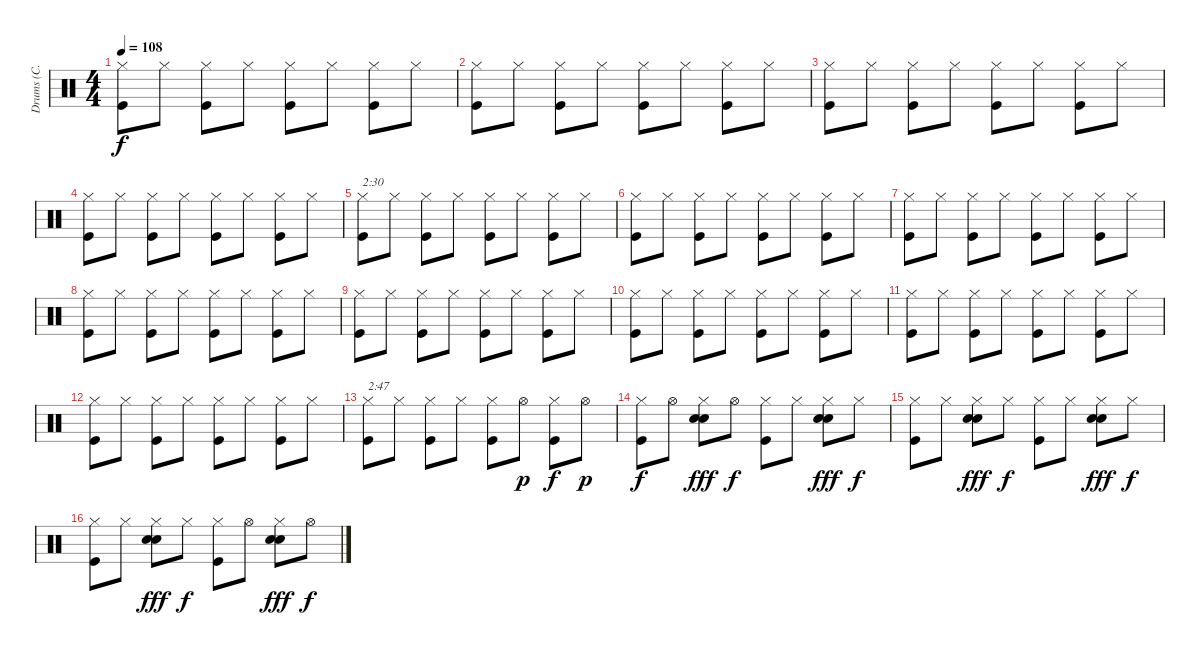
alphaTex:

\track ("Drums (C. Watts)" "Drums (C. ") {instrument percussion}
\staff {score}
\articulation defaults
\ts (4 4)
\tempo 108
\clef neutral
\ks c
("Hi-Hat (closed)" "Kick (hit)").8{dy f} "Hi-Hat (closed)".8 ("Hi-Hat (closed)" "Kick (hit)").8 "Hi-Hat (closed)".8 ("Hi-Hat (closed)" "Kick (hit)").8 "Hi-Hat (closed)".8 ("Hi-Hat (closed)" "Kick (hit)").8 "Hi-Hat (closed)".8 |
("Hi-Hat (closed)" "Kick (hit)").8 "Hi-Hat (closed)".8 ("Hi-Hat (closed)" "Kick (hit)").8 "Hi-Hat (closed)".8 ("Hi-Hat (closed)" "Kick (hit)").8 "Hi-Hat (closed)".8 ("Hi-Hat (closed)" "Kick (hit)").8 "Hi-Hat (closed)".8 |
("Hi-Hat (closed)" "Kick (hit)").8 "Hi-Hat (closed)".8 ("Hi-Hat (closed)" "Kick (hit)").8 "Hi-Hat (closed)".8 ("Hi-Hat (closed)" "Kick (hit)").8 "Hi-Hat (closed)".8 ("Hi-Hat (closed)" "Kick (hit)").8 "Hi-Hat (closed)".8 |
("Hi-Hat (closed)" "Kick (hit)").8 "Hi-Hat (closed)".8 ("Hi-Hat (closed)" "Kick (hit)").8 "Hi-Hat (closed)".8 ("Hi-Hat (closed)" "Kick (hit)").8 "Hi-Hat (closed)".8 ("Hi-Hat (closed)" "Kick (hit)").8 "Hi-Hat (closed)".8 |
("Hi-Hat (closed)" "Kick (hit)").8{txt "2:30"} "Hi-Hat (closed)".8 ("Hi-Hat (closed)" "Kick (hit)").8 "Hi-Hat (closed)".8 ("Hi-Hat (closed)" "Kick (hit)").8 "Hi-Hat (closed)".8 ("Hi-Hat (closed)" "Kick (hit)").8 "Hi-Hat (closed)".8 |
("Hi-Hat (closed)" "Kick (hit)").8 "Hi-Hat (closed)".8 ("Hi-Hat (closed)" "Kick (hit)").8 "Hi-Hat (closed)".8 ("Hi-Hat (closed)" "Kick (hit)").8 "Hi-Hat (closed)".8 ("Hi-Hat (closed)" "Kick (hit)").8 "Hi-Hat (closed)".8 |
("Hi-Hat (closed)" "Kick (hit)").8 "Hi-Hat (closed)".8 ("Hi-Hat (closed)" "Kick (hit)").8 "Hi-Hat (closed)".8 ("Hi-Hat (closed)" "Kick (hit)").8 "Hi-Hat (closed)".8 ("Hi-Hat (closed)" "Kick (hit)").8 "Hi-Hat (closed)".8 |
("Hi-Hat (closed)" "Kick (hit)").8 "Hi-Hat (closed)".8 ("Hi-Hat (closed)" "Kick (hit)").8 "Hi-Hat (closed)".8 ("Hi-Hat (closed)" "Kick (hit)").8 "Hi-Hat (closed)".8 ("Hi-Hat (closed)" "Kick (hit)").8 "Hi-Hat (closed)".8 |
("Hi-Hat (closed)" "Kick (hit)").8 "Hi-Hat (closed)".8 ("Hi-Hat (closed)" "Kick (hit)").8 "Hi-Hat (closed)".8 ("Hi-Hat (closed)" "Kick (hit)").8 "Hi-Hat (closed)".8 ("Hi-Hat (closed)" "Kick (hit)").8 "Hi-Hat (closed)".8 |
("Hi-Hat (closed)" "Kick (hit)").8 "Hi-Hat (closed)".8 ("Hi-Hat (closed)" "Kick (hit)").8 "Hi-Hat (closed)".8 ("Hi-Hat (closed)" "Kick (hit)").8 "Hi-Hat (closed)".8 ("Hi-Hat (closed)" "Kick (hit)").8 "Hi-Hat (closed)".8 |
("Hi-Hat (closed)" "Kick (hit)").8 "Hi-Hat (closed)".8 ("Hi-Hat (closed)" "Kick (hit)").8 "Hi-Hat (closed)".8 ("Hi-Hat (closed)" "Kick (hit)").8 "Hi-Hat (closed)".8 ("Hi-Hat (closed)" "Kick (hit)").8 "Hi-Hat (closed)".8 |
("Hi-Hat (closed)" "Kick (hit)").8 "Hi-Hat (closed)".8 ("Hi-Hat (closed)" "Kick (hit)").8 "Hi-Hat (closed)".8 ("Hi-Hat (closed)" "Kick (hit)").8 "Hi-Hat (closed)".8 ("Hi-Hat (closed)" "Kick (hit)").8 "Hi-Hat (closed)".8 |
("Hi-Hat (closed)" "Kick (hit)").8{txt "2:47"} "Hi-Hat (closed)".8 ("Hi-Hat (closed)" "Kick (hit)").8 "Hi-Hat (closed)".8 ("Hi-Hat (closed)" "Kick (hit)").8 "Hi-Hat (open)".8{dy p} ("Hi-Hat (closed)" "Kick (hit)").8{dy f} "Hi-Hat (open)".8{dy p} |
("Hi-Hat (closed)" "Kick (hit)").8{dy f} "Hi-Hat (open)".8 ("Hi-Hat (closed)" "Snare (hit) 2" "Electric Snare (hit)").8{dy fff} "Hi-Hat (open)".8{dy f} ("Hi-Hat (closed)" "Kick (hit)").8 "Hi-Hat (closed)".8 ("Hi-Hat (closed)" "Snare (hit) 2" "Electric Snare (hit)").8{dy fff} "Hi-Hat (closed)".8{dy f} |
("Hi-Hat (closed)" "Kick (hit)").8 "Hi-Hat (closed)".8 ("Hi-Hat (closed)" "Snare (hit) 2" "Electric Snare (hit)").8{dy fff} "Hi-Hat (closed)".8{dy f} ("Hi-Hat (closed)" "Kick (hit)").8 "Hi-Hat (closed)".8 ("Hi-Hat (closed)" "Snare (hit) 2" "Electric Snare (hit)").8{dy fff} "Hi-Hat (closed)".8{dy f} |
("Hi-Hat (closed)" "Kick (hit)").8 "Hi-Hat (closed)".8 ("Hi-Hat (closed)" "Snare (hit) 2" "Electric Snare (hit)").8{dy fff} "Hi-Hat (closed)".8{dy f} ("Hi-Hat (closed)" "Kick (hit)").8 "Hi-Hat (open)".8 ("Hi-Hat (closed)" "Snare (hit) 2" "Electric Snare (hit)").8{dy fff} "Hi-Hat (open)".8{dy f}
